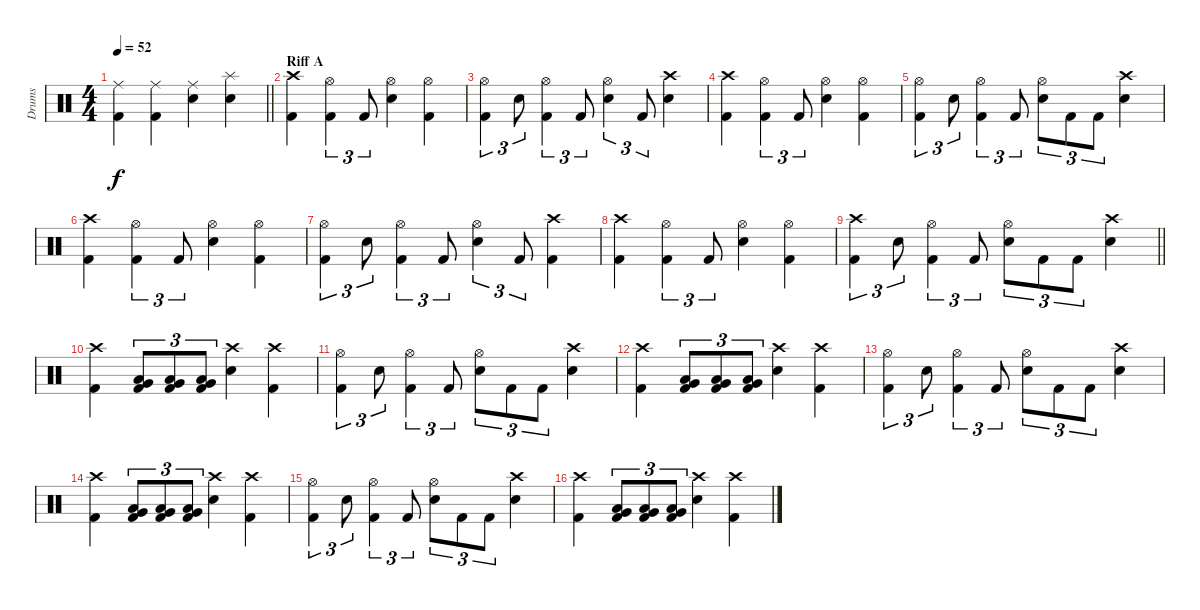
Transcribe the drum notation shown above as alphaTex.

\track ("Drums" "Drums") {instrument percussion}
\staff {score}
\articulation defaults
\ts (4 4)
\tempo 52
\clef neutral
\barLineRight lightlight
\ks c
("Ride (middle)" "Kick (hit) 2").4{dy f} ("Ride (middle)" "Kick (hit) 2").4 ("Ride (middle)" "Electric Snare (hit)").4 ("Splash (hit)" "Electric Snare (hit)").4 |
\section ("" "Riff A")
("Crash high (hit)" "Kick (hit) 2").4{volume 16} ("Hi-Hat (open)" "Kick (hit) 2").4{tu (3 2)} "Kick (hit) 2".8{tu (3 2)} ("Hi-Hat (open)" "Electric Snare (hit)").4 ("Hi-Hat (open)" "Kick (hit) 2").4 |
("Hi-Hat (open)" "Kick (hit) 2").4{tu (3 2)} "Electric Snare (hit)".8{tu (3 2)} ("Hi-Hat (open)" "Kick (hit) 2").4{tu (3 2)} "Kick (hit) 2".8{tu (3 2)} ("Hi-Hat (open)" "Electric Snare (hit)").4{tu (3 2)} "Kick (hit) 2".8{tu (3 2)} ("Crash high (hit)" "Electric Snare (hit)").4 |
("Crash high (hit)" "Kick (hit) 2").4 ("Hi-Hat (open)" "Kick (hit) 2").4{tu (3 2)} "Kick (hit) 2".8{tu (3 2)} ("Hi-Hat (open)" "Electric Snare (hit)").4 ("Hi-Hat (open)" "Kick (hit) 2").4 |
("Hi-Hat (open)" "Kick (hit) 2").4{tu (3 2)} "Electric Snare (hit)".8{tu (3 2)} ("Hi-Hat (open)" "Kick (hit) 2").4{tu (3 2)} "Kick (hit) 2".8{tu (3 2)} ("Hi-Hat (open)" "Electric Snare (hit)").8{tu (3 2)} "Kick (hit) 2".8{tu (3 2)} "Kick (hit) 2".8{tu (3 2)} ("Crash high (hit)" "Electric Snare (hit)").4 |
("Crash high (hit)" "Kick (hit) 2").4 ("Hi-Hat (open)" "Kick (hit) 2").4{tu (3 2)} "Kick (hit) 2".8{tu (3 2)} ("Hi-Hat (open)" "Electric Snare (hit)").4 ("Hi-Hat (open)" "Kick (hit) 2").4 |
("Hi-Hat (open)" "Kick (hit) 2").4{tu (3 2)} "Electric Snare (hit)".8{tu (3 2)} ("Hi-Hat (open)" "Kick (hit) 2").4{tu (3 2)} "Kick (hit) 2".8{tu (3 2)} ("Hi-Hat (open)" "Electric Snare (hit)").4{tu (3 2)} "Kick (hit) 2".8{tu (3 2)} ("Crash high (hit)" "Kick (hit) 2").4 |
("Crash high (hit)" "Kick (hit) 2").4 ("Hi-Hat (open)" "Kick (hit) 2").4{tu (3 2)} "Kick (hit) 2".8{tu (3 2)} ("Hi-Hat (open)" "Electric Snare (hit)").4 ("Hi-Hat (open)" "Kick (hit) 2").4 |
\barLineRight lightlight
("Crash high (hit)" "Kick (hit) 2").4{tu (3 2)} "Electric Snare (hit)".8{tu (3 2)} ("Hi-Hat (open)" "Kick (hit) 2").4{tu (3 2)} "Kick (hit) 2".8{tu (3 2)} ("Hi-Hat (open)" "Electric Snare (hit)").8{tu (3 2)} "Kick (hit) 2".8{tu (3 2)} "Kick (hit) 2".8{tu (3 2)} ("Crash high (hit)" "Electric Snare (hit)").4 |
("Crash high (hit)" "Kick (hit) 2").4 ("Low Tom (hit)" "Very Low Tom (hit)" "Kick (hit) 2").8{tu (3 2)} ("Low Tom (hit)" "Very Low Tom (hit)" "Kick (hit) 2").8{tu (3 2)} ("Low Tom (hit)" "Very Low Tom (hit)" "Kick (hit) 2").8{tu (3 2)} ("Crash high (hit)" "Electric Snare (hit)").4 ("Crash high (hit)" "Kick (hit) 2").4 |
("Hi-Hat (open)" "Kick (hit) 2").4{tu (3 2)} "Electric Snare (hit)".8{tu (3 2)} ("Hi-Hat (open)" "Kick (hit) 2").4{tu (3 2)} "Kick (hit) 2".8{tu (3 2)} ("Hi-Hat (open)" "Electric Snare (hit)").8{tu (3 2)} "Kick (hit) 2".8{tu (3 2)} "Kick (hit) 2".8{tu (3 2)} ("Crash high (hit)" "Electric Snare (hit)").4 |
("Crash high (hit)" "Kick (hit) 2").4 ("Low Tom (hit)" "Very Low Tom (hit)" "Kick (hit) 2").8{tu (3 2)} ("Low Tom (hit)" "Very Low Tom (hit)" "Kick (hit) 2").8{tu (3 2)} ("Low Tom (hit)" "Very Low Tom (hit)" "Kick (hit) 2").8{tu (3 2)} ("Crash high (hit)" "Electric Snare (hit)").4 ("Crash high (hit)" "Kick (hit) 2").4 |
("Hi-Hat (open)" "Kick (hit) 2").4{tu (3 2)} "Electric Snare (hit)".8{tu (3 2)} ("Hi-Hat (open)" "Kick (hit) 2").4{tu (3 2)} "Kick (hit) 2".8{tu (3 2)} ("Hi-Hat (open)" "Electric Snare (hit)").8{tu (3 2)} "Kick (hit) 2".8{tu (3 2)} "Kick (hit) 2".8{tu (3 2)} ("Crash high (hit)" "Electric Snare (hit)").4 |
("Crash high (hit)" "Kick (hit) 2").4 ("Low Tom (hit)" "Very Low Tom (hit)" "Kick (hit) 2").8{tu (3 2)} ("Low Tom (hit)" "Very Low Tom (hit)" "Kick (hit) 2").8{tu (3 2)} ("Low Tom (hit)" "Very Low Tom (hit)" "Kick (hit) 2").8{tu (3 2)} ("Crash high (hit)" "Electric Snare (hit)").4 ("Crash high (hit)" "Kick (hit) 2").4 |
("Hi-Hat (open)" "Kick (hit) 2").4{tu (3 2)} "Electric Snare (hit)".8{tu (3 2)} ("Hi-Hat (open)" "Kick (hit) 2").4{tu (3 2)} "Kick (hit) 2".8{tu (3 2)} ("Hi-Hat (open)" "Electric Snare (hit)").8{tu (3 2)} "Kick (hit) 2".8{tu (3 2)} "Kick (hit) 2".8{tu (3 2)} ("Crash high (hit)" "Electric Snare (hit)").4 |
("Crash high (hit)" "Kick (hit) 2").4 ("Low Tom (hit)" "Very Low Tom (hit)" "Kick (hit) 2").8{tu (3 2)} ("Low Tom (hit)" "Very Low Tom (hit)" "Kick (hit) 2").8{tu (3 2)} ("Low Tom (hit)" "Very Low Tom (hit)" "Kick (hit) 2").8{tu (3 2)} ("Crash high (hit)" "Electric Snare (hit)").4 ("Crash high (hit)" "Kick (hit) 2").4
